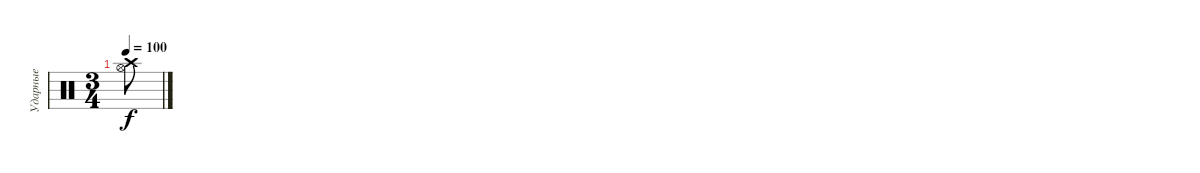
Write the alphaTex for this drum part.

\track ("Ударные" "Ударные") {instrument percussion}
\staff {score}
\articulation defaults
\ts (3 4)
\tempo 100
\clef neutral
\ks c
("Hi-Hat (open)" "Crash high (hit)").8{dy f}
